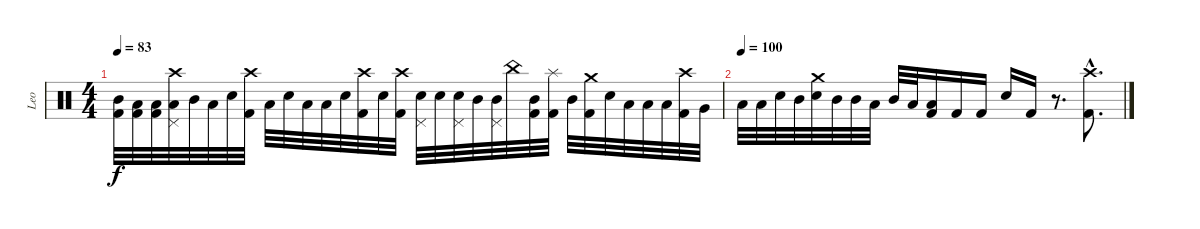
\track ("Leo" "Leo") {instrument percussion}
\staff {score}
\articulation defaults
\ts (4 4)
\tempo 83
\clef neutral
\ks c
("Mid Tom (hit)" "Kick (hit) 2").32{dy f} ("Low Tom (hit)" "Kick (hit) 2").32 ("Low Tom (hit)" "Kick (hit) 2").32 ("Crash high (hit)" "Low Tom (hit)" "Pedal Hi-Hat (hit)").32 "Mid Tom (hit)".32 "Low Tom (hit)".32 "Electric Snare (hit)".32 ("Crash high (hit)" "Kick (hit) 2").32 "Low Tom (hit)".32 "Electric Snare (hit)".32 "Low Tom (hit)".32 "Low Tom (hit)".32 "Electric Snare (hit)".32 ("Crash high (hit)" "Kick (hit) 2").32 "Electric Snare (hit)".32 ("Crash high (hit)" "Kick (hit) 2").32 ("Electric Snare (hit)" "Pedal Hi-Hat (hit)").32 "Electric Snare (hit)".32 ("Electric Snare (hit)" "Pedal Hi-Hat (hit)").32 "Mid Tom (hit)".32 ("Mid Tom (hit)" "Pedal Hi-Hat (hit)").32 "China (hit)".32 ("Mid Tom (hit)" "Kick (hit) 2").32 ("Splash (hit)" "Kick (hit) 2").32 "Mid Tom (hit)".32 ("Crash medium (hit)" "Kick (hit) 2").32 "Electric Snare (hit)".32 "Low Tom (hit)".32 "Low Tom (hit)".32 "Low Tom (hit)".32 ("Crash high (hit)" "Kick (hit) 2").32 "Very Low Tom (hit)".32 |
\tempo (100)
"Low Tom (hit)".32 "Low Tom (hit)".32 "Electric Snare (hit)".32 "Mid Tom (hit)".32 ("Crash medium (hit)" "Electric Snare (hit)").32 "Mid Tom (hit)".32 "Mid Tom (hit)".32 "Low Tom (hit)".32 "Mid Tom (hit)".32 "Low Tom (hit)".32 ("Low Tom (hit)" "Kick (hit) 2").16 "Kick (hit) 2".16 "Kick (hit) 2".16 "Electric Snare (hit)".16 "Kick (hit) 2".16 r.8{d} ("Crash high (hit)"{hac} "Kick (hit) 2"{hac}).8{d}
